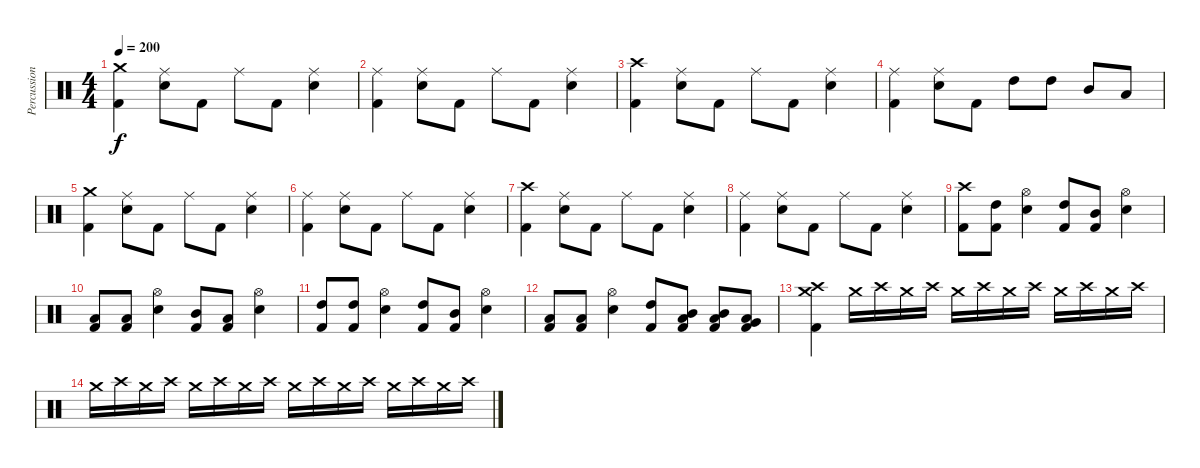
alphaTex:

\track ("Percussioni" "Percussion") {instrument percussion}
\staff {score}
\articulation defaults
\ts (4 4)
\tempo 200
\clef neutral
\ks c
("Crash medium (hit)" "Kick (hit) 2").4{dy f} ("Ride (middle)" "Electric Snare (hit)").8 "Kick (hit) 2".8 "Ride (middle)".8 "Kick (hit) 2".8 ("Ride (middle)" "Electric Snare (hit)").4 |
("Ride (middle)" "Kick (hit) 2").4 ("Ride (middle)" "Electric Snare (hit)").8 "Kick (hit) 2".8 "Ride (middle)".8 "Kick (hit) 2".8 ("Ride (middle)" "Electric Snare (hit)").4 |
("Crash high (hit)" "Kick (hit) 2").4 ("Ride (middle)" "Electric Snare (hit)").8 "Kick (hit) 2".8 "Ride (middle)".8 "Kick (hit) 2".8 ("Ride (middle)" "Electric Snare (hit)").4 |
("Ride (middle)" "Kick (hit) 2").4 ("Ride (middle)" "Electric Snare (hit)").8 "Kick (hit) 2".8 "High Tom (hit)".8 "High Tom (hit)".8 "Mid Tom (hit)".8 "Low Tom (hit)".8 |
("Crash medium (hit)" "Kick (hit) 2").4 ("Ride (middle)" "Electric Snare (hit)").8 "Kick (hit) 2".8 "Ride (middle)".8 "Kick (hit) 2".8 ("Ride (middle)" "Electric Snare (hit)").4 |
("Ride (middle)" "Kick (hit) 2").4 ("Ride (middle)" "Electric Snare (hit)").8 "Kick (hit) 2".8 "Ride (middle)".8 "Kick (hit) 2".8 ("Ride (middle)" "Electric Snare (hit)").4 |
("Crash high (hit)" "Kick (hit) 2").4 ("Ride (middle)" "Electric Snare (hit)").8 "Kick (hit) 2".8 "Ride (middle)".8 "Kick (hit) 2".8 ("Ride (middle)" "Electric Snare (hit)").4 |
("Ride (middle)" "Kick (hit) 2").4 ("Ride (middle)" "Electric Snare (hit)").8 "Kick (hit) 2".8 "Ride (middle)".8 "Kick (hit) 2".8 ("Ride (middle)" "Electric Snare (hit)").4 |
("Crash high (hit)" "Kick (hit) 2").8 ("High Tom (hit)" "Kick (hit) 2").8 ("Hi-Hat (open)" "Electric Snare (hit)").4 ("High Tom (hit)" "Kick (hit) 2").8 ("Mid Tom (hit)" "Kick (hit) 2").8 ("Hi-Hat (open)" "Electric Snare (hit)").4 |
("Low Tom (hit)" "Kick (hit) 2").8 ("Low Tom (hit)" "Kick (hit) 2").8 ("Hi-Hat (open)" "Electric Snare (hit)").4 ("Mid Tom (hit)" "Kick (hit) 2").8 ("Low Tom (hit)" "Kick (hit) 2").8 ("Hi-Hat (open)" "Electric Snare (hit)").4 |
("High Tom (hit)" "Kick (hit) 2").8 ("High Tom (hit)" "Kick (hit) 2").8 ("Hi-Hat (open)" "Electric Snare (hit)").4 ("High Tom (hit)" "Kick (hit) 2").8 ("Mid Tom (hit)" "Kick (hit) 2").8 ("Hi-Hat (open)" "Electric Snare (hit)").4 |
("Low Tom (hit)" "Kick (hit) 2").8 ("Low Tom (hit)" "Kick (hit) 2").8 ("Hi-Hat (open)" "Electric Snare (hit)").4 ("High Tom (hit)" "Kick (hit) 2").8 ("Mid Tom (hit)" "Low Tom (hit)" "Kick (hit) 2").8 ("Mid Tom (hit)" "Low Tom (hit)" "Kick (hit) 2").8 ("Low Tom (hit)" "Very Low Tom (hit)" "Kick (hit) 2").8 |
("Crash high (hit)" "Crash medium (hit)" "Kick (hit) 2").4 "Crash medium (hit)".16{volume 0} "Crash high (hit)".16 "Crash medium (hit)".16 "Crash high (hit)".16 "Crash medium (hit)".16 "Crash high (hit)".16 "Crash medium (hit)".16 "Crash high (hit)".16 "Crash medium (hit)".16 "Crash high (hit)".16 "Crash medium (hit)".16 "Crash high (hit)".16 |
"Crash medium (hit)".16 "Crash high (hit)".16 "Crash medium (hit)".16 "Crash high (hit)".16 "Crash medium (hit)".16 "Crash high (hit)".16 "Crash medium (hit)".16 "Crash high (hit)".16 "Crash medium (hit)".16 "Crash high (hit)".16 "Crash medium (hit)".16 "Crash high (hit)".16 "Crash medium (hit)".16 "Crash high (hit)".16 "Crash medium (hit)".16 "Crash high (hit)".16
